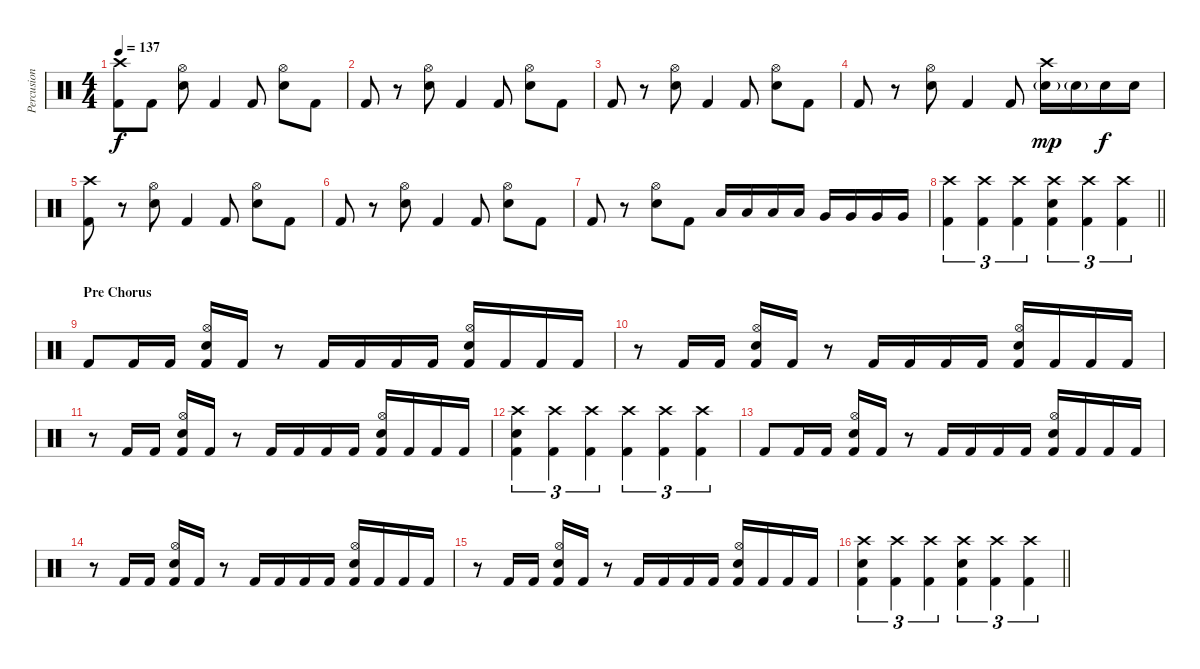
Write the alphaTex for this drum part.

\track ("Percusion" "Percusion") {instrument percussion}
\staff {score}
\articulation defaults
\ts (4 4)
\tempo 137
\clef neutral
\ks c
("Crash high (hit)" "Kick (hit) 2").8{dy f} "Kick (hit) 2".8 ("Hi-Hat (open)" "Snare (hit) 2").8 "Kick (hit) 2".4 "Kick (hit) 2".8 ("Hi-Hat (open)" "Snare (hit) 2").8 "Kick (hit) 2".8 |
"Kick (hit) 2".8 r.8 ("Hi-Hat (open)" "Snare (hit) 2").8 "Kick (hit) 2".4 "Kick (hit) 2".8 ("Hi-Hat (open)" "Snare (hit) 2").8 "Kick (hit) 2".8 |
"Kick (hit) 2".8 r.8 ("Hi-Hat (open)" "Snare (hit) 2").8 "Kick (hit) 2".4 "Kick (hit) 2".8 ("Hi-Hat (open)" "Snare (hit) 2").8 "Kick (hit) 2".8 |
"Kick (hit) 2".8 r.8 ("Hi-Hat (open)" "Snare (hit) 2").8 "Kick (hit) 2".4 "Kick (hit) 2".8 ("Crash high (hit)" "Snare (hit) 2"{g}).16{dy mp} "Snare (hit) 2"{g}.16 "Snare (hit) 2".16{dy f} "Snare (hit) 2".16 |
("Crash high (hit)" "Kick (hit) 2").8 r.8 ("Hi-Hat (open)" "Snare (hit) 2").8 "Kick (hit) 2".4 "Kick (hit) 2".8 ("Hi-Hat (open)" "Snare (hit) 2").8 "Kick (hit) 2".8 |
"Kick (hit) 2".8 r.8 ("Hi-Hat (open)" "Snare (hit) 2").8 "Kick (hit) 2".4 "Kick (hit) 2".8 ("Hi-Hat (open)" "Snare (hit) 2").8 "Kick (hit) 2".8 |
"Kick (hit) 2".8 r.8 ("Hi-Hat (open)" "Snare (hit) 2").8 "Kick (hit) 2".8 "Low Tom (hit)".16 "Low Tom (hit)".16 "Low Tom (hit)".16 "Low Tom (hit)".16 "Very Low Tom (hit)".16 "Very Low Tom (hit)".16 "Very Low Tom (hit)".16 "Very Low Tom (hit)".16 |
\barLineRight lightlight
("Crash high (hit)" "Kick (hit) 2").4{tu (3 2)} ("Crash high (hit)" "Kick (hit) 2").4{tu (3 2)} ("Crash high (hit)" "Kick (hit) 2").4{tu (3 2)} ("Crash high (hit)" "Snare (hit) 2" "Kick (hit) 2").4{tu (3 2)} ("Crash high (hit)" "Kick (hit) 2").4{tu (3 2)} ("Crash high (hit)" "Kick (hit) 2").4{tu (3 2)} |
\section ("" "Pre Chorus")
"Kick (hit) 2".8 "Kick (hit) 2".16 "Kick (hit) 2".16 ("Hi-Hat (open)" "Snare (hit) 2" "Kick (hit) 2").16 "Kick (hit) 2".16 r.8 "Kick (hit) 2".16 "Kick (hit) 2".16 "Kick (hit) 2".16 "Kick (hit) 2".16 ("Hi-Hat (open)" "Snare (hit) 2" "Kick (hit) 2").16 "Kick (hit) 2".16 "Kick (hit) 2".16 "Kick (hit) 2".16 |
r.8 "Kick (hit) 2".16 "Kick (hit) 2".16 ("Hi-Hat (open)" "Snare (hit) 2" "Kick (hit) 2").16 "Kick (hit) 2".16 r.8 "Kick (hit) 2".16 "Kick (hit) 2".16 "Kick (hit) 2".16 "Kick (hit) 2".16 ("Hi-Hat (open)" "Snare (hit) 2" "Kick (hit) 2").16 "Kick (hit) 2".16 "Kick (hit) 2".16 "Kick (hit) 2".16 |
r.8 "Kick (hit) 2".16 "Kick (hit) 2".16 ("Hi-Hat (open)" "Snare (hit) 2" "Kick (hit) 2").16 "Kick (hit) 2".16 r.8 "Kick (hit) 2".16 "Kick (hit) 2".16 "Kick (hit) 2".16 "Kick (hit) 2".16 ("Hi-Hat (open)" "Snare (hit) 2" "Kick (hit) 2").16 "Kick (hit) 2".16 "Kick (hit) 2".16 "Kick (hit) 2".16 |
("Crash high (hit)" "Snare (hit) 2" "Kick (hit) 2").4{tu (3 2)} ("Crash high (hit)" "Kick (hit) 2").4{tu (3 2)} ("Crash high (hit)" "Kick (hit) 2").4{tu (3 2)} ("Crash high (hit)" "Kick (hit) 2").4{tu (3 2)} ("Crash high (hit)" "Kick (hit) 2").4{tu (3 2)} ("Crash high (hit)" "Kick (hit) 2").4{tu (3 2)} |
"Kick (hit) 2".8 "Kick (hit) 2".16 "Kick (hit) 2".16 ("Hi-Hat (open)" "Snare (hit) 2" "Kick (hit) 2").16 "Kick (hit) 2".16 r.8 "Kick (hit) 2".16 "Kick (hit) 2".16 "Kick (hit) 2".16 "Kick (hit) 2".16 ("Hi-Hat (open)" "Snare (hit) 2" "Kick (hit) 2").16 "Kick (hit) 2".16 "Kick (hit) 2".16 "Kick (hit) 2".16 |
r.8 "Kick (hit) 2".16 "Kick (hit) 2".16 ("Hi-Hat (open)" "Snare (hit) 2" "Kick (hit) 2").16 "Kick (hit) 2".16 r.8 "Kick (hit) 2".16 "Kick (hit) 2".16 "Kick (hit) 2".16 "Kick (hit) 2".16 ("Hi-Hat (open)" "Snare (hit) 2" "Kick (hit) 2").16 "Kick (hit) 2".16 "Kick (hit) 2".16 "Kick (hit) 2".16 |
r.8 "Kick (hit) 2".16 "Kick (hit) 2".16 ("Hi-Hat (open)" "Snare (hit) 2" "Kick (hit) 2").16 "Kick (hit) 2".16 r.8 "Kick (hit) 2".16 "Kick (hit) 2".16 "Kick (hit) 2".16 "Kick (hit) 2".16 ("Hi-Hat (open)" "Snare (hit) 2" "Kick (hit) 2").16 "Kick (hit) 2".16 "Kick (hit) 2".16 "Kick (hit) 2".16 |
\barLineRight lightlight
("Crash high (hit)" "Snare (hit) 2" "Kick (hit) 2").4{tu (3 2)} ("Crash high (hit)" "Kick (hit) 2").4{tu (3 2)} ("Crash high (hit)" "Kick (hit) 2").4{tu (3 2)} ("Crash high (hit)" "Snare (hit) 2" "Kick (hit) 2").4{tu (3 2)} ("Crash high (hit)" "Kick (hit) 2").4{tu (3 2)} ("Crash high (hit)" "Kick (hit) 2").4{tu (3 2)}
